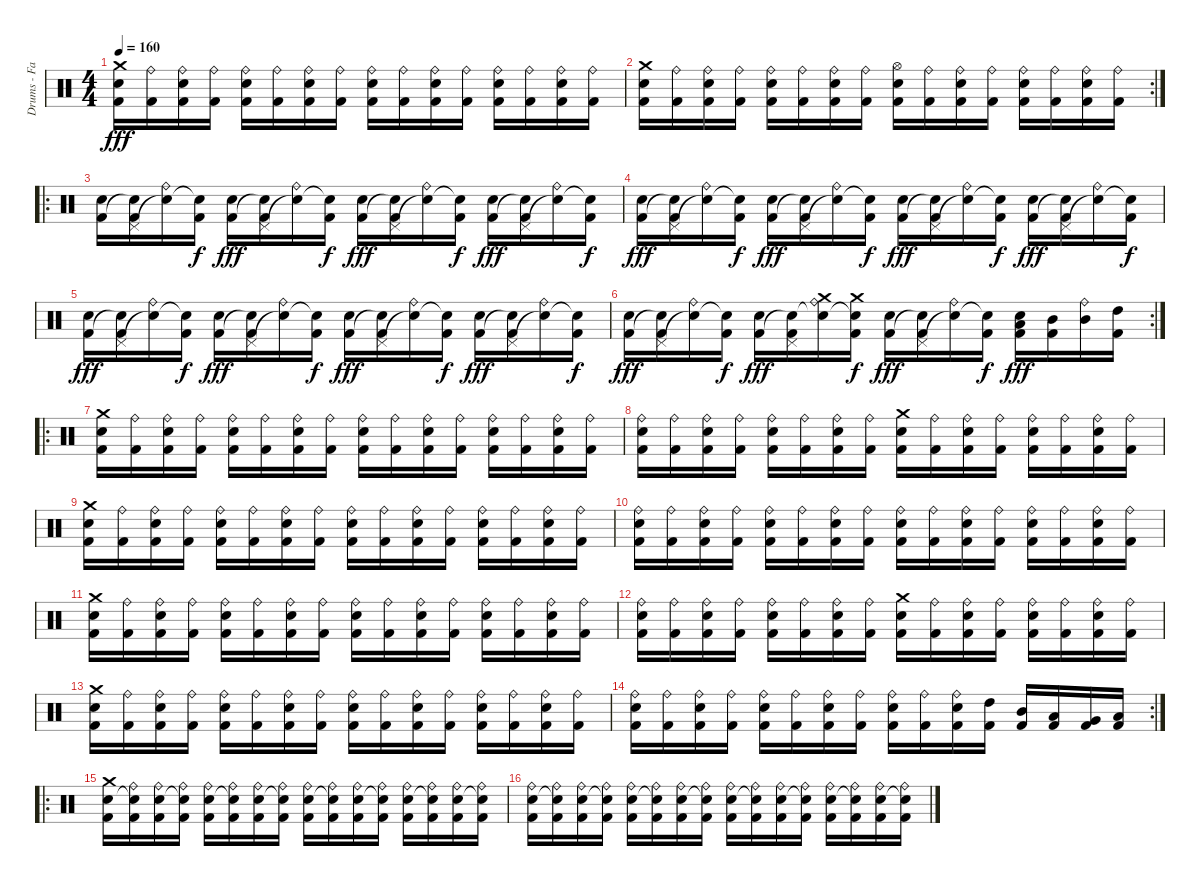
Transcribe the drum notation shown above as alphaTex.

\track ("Drums - Faust" "Drums - Fa") {instrument percussion}
\staff {score}
\articulation defaults
\ts (4 4)
\tempo 160
\clef neutral
\ks c
("Crash medium (hit)" "Electric Snare (hit)" "Kick (hit) 2").16{dy fff} ("Ride (bell)" "Kick (hit) 2").16 ("Ride (bell)" "Electric Snare (hit)" "Kick (hit) 2").16 ("Ride (bell)" "Kick (hit) 2").16 ("Ride (bell)" "Electric Snare (hit)" "Kick (hit) 2").16 ("Ride (bell)" "Kick (hit) 2").16 ("Ride (bell)" "Electric Snare (hit)" "Kick (hit) 2").16 ("Ride (bell)" "Kick (hit) 2").16 ("Ride (bell)" "Electric Snare (hit)" "Kick (hit) 2").16 ("Ride (bell)" "Kick (hit) 2").16 ("Ride (bell)" "Electric Snare (hit)" "Kick (hit) 2").16 ("Ride (bell)" "Kick (hit) 2").16 ("Ride (bell)" "Electric Snare (hit)" "Kick (hit) 2").16 ("Ride (bell)" "Kick (hit) 2").16 ("Ride (bell)" "Electric Snare (hit)" "Kick (hit) 2").16 ("Ride (bell)" "Kick (hit) 2").16 |
\rc 2
("Crash medium (hit)" "Electric Snare (hit)" "Kick (hit) 2").16 ("Ride (bell)" "Kick (hit) 2").16 ("Ride (bell)" "Electric Snare (hit)" "Kick (hit) 2").16 ("Ride (bell)" "Kick (hit) 2").16 ("Ride (bell)" "Electric Snare (hit)" "Kick (hit) 2").16 ("Ride (bell)" "Kick (hit) 2").16 ("Ride (bell)" "Electric Snare (hit)" "Kick (hit) 2").16 ("Ride (bell)" "Kick (hit) 2").16 ("Hi-Hat (open)" "Electric Snare (hit)" "Kick (hit) 2").16 ("Ride (bell)" "Kick (hit) 2").16 ("Ride (bell)" "Electric Snare (hit)" "Kick (hit) 2").16 ("Ride (bell)" "Kick (hit) 2").16 ("Ride (bell)" "Electric Snare (hit)" "Kick (hit) 2").16 ("Ride (bell)" "Kick (hit) 2").16 ("Ride (bell)" "Electric Snare (hit)" "Kick (hit) 2").16 ("Ride (bell)" "Kick (hit) 2").16 |
\ro
("Electric Snare (hit)" "Kick (hit) 2").16 ("Pedal Hi-Hat (hit)" "Snare (hit)"{t} "Kick (hit) 2").16 ("Snare (hit)"{t} "Ride (bell)").16 ("Snare (hit)"{t} "Kick (hit) 2").16{dy f} ("Electric Snare (hit)" "Kick (hit) 2").16{dy fff} ("Pedal Hi-Hat (hit)" "Snare (hit)"{t} "Kick (hit) 2").16 ("Snare (hit)"{t} "Ride (bell)").16 ("Snare (hit)"{t} "Kick (hit) 2").16{dy f} ("Electric Snare (hit)" "Kick (hit) 2").16{dy fff} ("Pedal Hi-Hat (hit)" "Snare (hit)"{t} "Kick (hit) 2").16 ("Snare (hit)"{t} "Ride (bell)").16 ("Snare (hit)"{t} "Kick (hit) 2").16{dy f} ("Electric Snare (hit)" "Kick (hit) 2").16{dy fff} ("Pedal Hi-Hat (hit)" "Snare (hit)"{t} "Kick (hit) 2").16 ("Snare (hit)"{t} "Ride (bell)").16 ("Snare (hit)"{t} "Kick (hit) 2").16{dy f} |
("Electric Snare (hit)" "Kick (hit) 2").16{dy fff} ("Pedal Hi-Hat (hit)" "Snare (hit)"{t} "Kick (hit) 2").16 ("Snare (hit)"{t} "Ride (bell)").16 ("Snare (hit)"{t} "Kick (hit) 2").16{dy f} ("Electric Snare (hit)" "Kick (hit) 2").16{dy fff} ("Pedal Hi-Hat (hit)" "Snare (hit)"{t} "Kick (hit) 2").16 ("Snare (hit)"{t} "Ride (bell)").16 ("Snare (hit)"{t} "Kick (hit) 2").16{dy f} ("Electric Snare (hit)" "Kick (hit) 2").16{dy fff} ("Pedal Hi-Hat (hit)" "Snare (hit)"{t} "Kick (hit) 2").16 ("Snare (hit)"{t} "Ride (bell)").16 ("Snare (hit)"{t} "Kick (hit) 2").16{dy f} ("Electric Snare (hit)" "Kick (hit) 2").16{dy fff} ("Pedal Hi-Hat (hit)" "Snare (hit)"{t} "Kick (hit) 2").16 ("Snare (hit)"{t} "Ride (bell)").16 ("Snare (hit)"{t} "Kick (hit) 2").16{dy f} |
("Electric Snare (hit)" "Kick (hit) 2").16{dy fff} ("Pedal Hi-Hat (hit)" "Snare (hit)"{t} "Kick (hit) 2").16 ("Snare (hit)"{t} "Ride (bell)").16 ("Snare (hit)"{t} "Kick (hit) 2").16{dy f} ("Electric Snare (hit)" "Kick (hit) 2").16{dy fff} ("Pedal Hi-Hat (hit)" "Snare (hit)"{t} "Kick (hit) 2").16 ("Snare (hit)"{t} "Ride (bell)").16 ("Snare (hit)"{t} "Kick (hit) 2").16{dy f} ("Electric Snare (hit)" "Kick (hit) 2").16{dy fff} ("Pedal Hi-Hat (hit)" "Snare (hit)"{t} "Kick (hit) 2").16 ("Snare (hit)"{t} "Ride (bell)").16 ("Snare (hit)"{t} "Kick (hit) 2").16{dy f} ("Electric Snare (hit)" "Kick (hit) 2").16{dy fff} ("Pedal Hi-Hat (hit)" "Snare (hit)"{t} "Kick (hit) 2").16 ("Snare (hit)"{t} "Ride (bell)").16 ("Snare (hit)"{t} "Kick (hit) 2").16{dy f} |
\rc 2
("Electric Snare (hit)" "Kick (hit) 2").16{dy fff} ("Pedal Hi-Hat (hit)" "Snare (hit)"{t} "Kick (hit) 2").16 ("Snare (hit)"{t} "Ride (bell)").16 ("Snare (hit)"{t} "Kick (hit) 2").16{dy f} ("Electric Snare (hit)" "Kick (hit) 2").16{dy fff} ("Pedal Hi-Hat (hit)" "Snare (hit)"{t} "Kick (hit) 2").16 ("Crash medium (hit)" "Snare (hit)"{t} "Ride (bell)").16 ("Crash medium (hit)" "Snare (hit)"{t} "Kick (hit) 2").16{dy f} ("Electric Snare (hit)" "Kick (hit) 2").16{dy fff} ("Pedal Hi-Hat (hit)" "Snare (hit)"{t} "Kick (hit) 2").16 ("Snare (hit)"{t} "Ride (bell)").16 ("Snare (hit)"{t} "Kick (hit) 2").16{dy f} ("Low Tom (hit)" "Electric Snare (hit)" "Kick (hit) 2").16{dy fff} ("Mid Tom (hit)" "Kick (hit) 2").16 ("Mid Tom (hit)" "Ride (bell)").16 ("High Tom (hit)" "Kick (hit) 2").16 |
\ro
("Crash medium (hit)" "Electric Snare (hit)" "Kick (hit) 2").16 ("Ride (bell)" "Kick (hit) 2").16 ("Ride (bell)" "Electric Snare (hit)" "Kick (hit) 2").16 ("Ride (bell)" "Kick (hit) 2").16 ("Ride (bell)" "Electric Snare (hit)" "Kick (hit) 2").16 ("Ride (bell)" "Kick (hit) 2").16 ("Ride (bell)" "Electric Snare (hit)" "Kick (hit) 2").16 ("Ride (bell)" "Kick (hit) 2").16 ("Ride (bell)" "Electric Snare (hit)" "Kick (hit) 2").16 ("Ride (bell)" "Kick (hit) 2").16 ("Ride (bell)" "Electric Snare (hit)" "Kick (hit) 2").16 ("Ride (bell)" "Kick (hit) 2").16 ("Ride (bell)" "Electric Snare (hit)" "Kick (hit) 2").16 ("Ride (bell)" "Kick (hit) 2").16 ("Ride (bell)" "Electric Snare (hit)" "Kick (hit) 2").16 ("Ride (bell)" "Kick (hit) 2").16 |
("Ride (bell)" "Electric Snare (hit)" "Kick (hit) 2").16 ("Ride (bell)" "Kick (hit) 2").16 ("Ride (bell)" "Electric Snare (hit)" "Kick (hit) 2").16 ("Ride (bell)" "Kick (hit) 2").16 ("Ride (bell)" "Electric Snare (hit)" "Kick (hit) 2").16 ("Ride (bell)" "Kick (hit) 2").16 ("Ride (bell)" "Electric Snare (hit)" "Kick (hit) 2").16 ("Ride (bell)" "Kick (hit) 2").16 ("Crash medium (hit)" "Electric Snare (hit)" "Kick (hit) 2").16 ("Ride (bell)" "Kick (hit) 2").16 ("Ride (bell)" "Electric Snare (hit)" "Kick (hit) 2").16 ("Ride (bell)" "Kick (hit) 2").16 ("Ride (bell)" "Electric Snare (hit)" "Kick (hit) 2").16 ("Ride (bell)" "Kick (hit) 2").16 ("Ride (bell)" "Electric Snare (hit)" "Kick (hit) 2").16 ("Ride (bell)" "Kick (hit) 2").16 |
("Crash medium (hit)" "Electric Snare (hit)" "Kick (hit) 2").16 ("Ride (bell)" "Kick (hit) 2").16 ("Ride (bell)" "Electric Snare (hit)" "Kick (hit) 2").16 ("Ride (bell)" "Kick (hit) 2").16 ("Ride (bell)" "Electric Snare (hit)" "Kick (hit) 2").16 ("Ride (bell)" "Kick (hit) 2").16 ("Ride (bell)" "Electric Snare (hit)" "Kick (hit) 2").16 ("Ride (bell)" "Kick (hit) 2").16 ("Ride (bell)" "Electric Snare (hit)" "Kick (hit) 2").16 ("Ride (bell)" "Kick (hit) 2").16 ("Ride (bell)" "Electric Snare (hit)" "Kick (hit) 2").16 ("Ride (bell)" "Kick (hit) 2").16 ("Ride (bell)" "Electric Snare (hit)" "Kick (hit) 2").16 ("Ride (bell)" "Kick (hit) 2").16 ("Ride (bell)" "Electric Snare (hit)" "Kick (hit) 2").16 ("Ride (bell)" "Kick (hit) 2").16 |
("Ride (bell)" "Electric Snare (hit)" "Kick (hit) 2").16 ("Ride (bell)" "Kick (hit) 2").16 ("Ride (bell)" "Electric Snare (hit)" "Kick (hit) 2").16 ("Ride (bell)" "Kick (hit) 2").16 ("Ride (bell)" "Electric Snare (hit)" "Kick (hit) 2").16 ("Ride (bell)" "Kick (hit) 2").16 ("Ride (bell)" "Electric Snare (hit)" "Kick (hit) 2").16 ("Ride (bell)" "Kick (hit) 2").16 ("Ride (bell)" "Electric Snare (hit)" "Kick (hit) 2").16 ("Ride (bell)" "Kick (hit) 2").16 ("Ride (bell)" "Electric Snare (hit)" "Kick (hit) 2").16 ("Ride (bell)" "Kick (hit) 2").16 ("Ride (bell)" "Electric Snare (hit)" "Kick (hit) 2").16 ("Ride (bell)" "Kick (hit) 2").16 ("Ride (bell)" "Electric Snare (hit)" "Kick (hit) 2").16 ("Ride (bell)" "Kick (hit) 2").16 |
("Crash medium (hit)" "Electric Snare (hit)" "Kick (hit) 2").16 ("Ride (bell)" "Kick (hit) 2").16 ("Ride (bell)" "Electric Snare (hit)" "Kick (hit) 2").16 ("Ride (bell)" "Kick (hit) 2").16 ("Ride (bell)" "Electric Snare (hit)" "Kick (hit) 2").16 ("Ride (bell)" "Kick (hit) 2").16 ("Ride (bell)" "Electric Snare (hit)" "Kick (hit) 2").16 ("Ride (bell)" "Kick (hit) 2").16 ("Ride (bell)" "Electric Snare (hit)" "Kick (hit) 2").16 ("Ride (bell)" "Kick (hit) 2").16 ("Ride (bell)" "Electric Snare (hit)" "Kick (hit) 2").16 ("Ride (bell)" "Kick (hit) 2").16 ("Ride (bell)" "Electric Snare (hit)" "Kick (hit) 2").16 ("Ride (bell)" "Kick (hit) 2").16 ("Ride (bell)" "Electric Snare (hit)" "Kick (hit) 2").16 ("Ride (bell)" "Kick (hit) 2").16 |
("Ride (bell)" "Electric Snare (hit)" "Kick (hit) 2").16 ("Ride (bell)" "Kick (hit) 2").16 ("Ride (bell)" "Electric Snare (hit)" "Kick (hit) 2").16 ("Ride (bell)" "Kick (hit) 2").16 ("Ride (bell)" "Electric Snare (hit)" "Kick (hit) 2").16 ("Ride (bell)" "Kick (hit) 2").16 ("Ride (bell)" "Electric Snare (hit)" "Kick (hit) 2").16 ("Ride (bell)" "Kick (hit) 2").16 ("Crash medium (hit)" "Electric Snare (hit)" "Kick (hit) 2").16 ("Ride (bell)" "Kick (hit) 2").16 ("Ride (bell)" "Electric Snare (hit)" "Kick (hit) 2").16 ("Ride (bell)" "Kick (hit) 2").16 ("Ride (bell)" "Electric Snare (hit)" "Kick (hit) 2").16 ("Ride (bell)" "Kick (hit) 2").16 ("Ride (bell)" "Electric Snare (hit)" "Kick (hit) 2").16 ("Ride (bell)" "Kick (hit) 2").16 |
("Crash medium (hit)" "Electric Snare (hit)" "Kick (hit) 2").16 ("Ride (bell)" "Kick (hit) 2").16 ("Ride (bell)" "Electric Snare (hit)" "Kick (hit) 2").16 ("Ride (bell)" "Kick (hit) 2").16 ("Ride (bell)" "Electric Snare (hit)" "Kick (hit) 2").16 ("Ride (bell)" "Kick (hit) 2").16 ("Ride (bell)" "Electric Snare (hit)" "Kick (hit) 2").16 ("Ride (bell)" "Kick (hit) 2").16 ("Ride (bell)" "Electric Snare (hit)" "Kick (hit) 2").16 ("Ride (bell)" "Kick (hit) 2").16 ("Ride (bell)" "Electric Snare (hit)" "Kick (hit) 2").16 ("Ride (bell)" "Kick (hit) 2").16 ("Ride (bell)" "Electric Snare (hit)" "Kick (hit) 2").16 ("Ride (bell)" "Kick (hit) 2").16 ("Ride (bell)" "Electric Snare (hit)" "Kick (hit) 2").16 ("Ride (bell)" "Kick (hit) 2").16 |
\rc 2
("Ride (bell)" "Electric Snare (hit)" "Kick (hit) 2").16 ("Ride (bell)" "Kick (hit) 2").16 ("Ride (bell)" "Electric Snare (hit)" "Kick (hit) 2").16 ("Ride (bell)" "Kick (hit) 2").16 ("Ride (bell)" "Electric Snare (hit)" "Kick (hit) 2").16 ("Ride (bell)" "Kick (hit) 2").16 ("Ride (bell)" "Electric Snare (hit)" "Kick (hit) 2").16 ("Ride (bell)" "Kick (hit) 2").16 ("Ride (bell)" "Electric Snare (hit)" "Kick (hit) 2").16 ("Ride (bell)" "Kick (hit) 2").16 ("Ride (bell)" "Electric Snare (hit)" "Kick (hit) 2").16 ("High Tom (hit)" "Kick (hit) 2").16 ("Mid Tom (hit)" "Kick (hit) 2").16 ("Low Tom (hit)" "Kick (hit) 2").16 ("Very Low Tom (hit)" "Kick (hit) 2").16 ("Low Floor Tom (hit)" "Kick (hit) 2").16 |
\ro
("Crash medium (hit)" "Electric Snare (hit)" "Kick (hit) 2").16 ("Ride (bell)" "Snare (hit)"{t} "Kick (hit) 2").16 ("Ride (bell)" "Electric Snare (hit)" "Kick (hit) 2").16 ("Ride (bell)" "Snare (hit)"{t} "Kick (hit) 2").16 ("Ride (bell)" "Electric Snare (hit)" "Kick (hit) 2").16 ("Ride (bell)" "Snare (hit)"{t} "Kick (hit) 2").16 ("Ride (bell)" "Electric Snare (hit)" "Kick (hit) 2").16 ("Ride (bell)" "Snare (hit)"{t} "Kick (hit) 2").16 ("Ride (bell)" "Electric Snare (hit)" "Kick (hit) 2").16 ("Ride (bell)" "Snare (hit)"{t} "Kick (hit) 2").16 ("Ride (bell)" "Electric Snare (hit)" "Kick (hit) 2").16 ("Ride (bell)" "Snare (hit)"{t} "Kick (hit) 2").16 ("Ride (bell)" "Electric Snare (hit)" "Kick (hit) 2").16 ("Ride (bell)" "Snare (hit)"{t} "Kick (hit) 2").16 ("Ride (bell)" "Electric Snare (hit)" "Kick (hit) 2").16 ("Ride (bell)" "Snare (hit)"{t} "Kick (hit) 2").16 |
("Ride (bell)" "Electric Snare (hit)" "Kick (hit) 2").16 ("Ride (bell)" "Snare (hit)"{t} "Kick (hit) 2").16 ("Ride (bell)" "Electric Snare (hit)" "Kick (hit) 2").16 ("Ride (bell)" "Snare (hit)"{t} "Kick (hit) 2").16 ("Ride (bell)" "Electric Snare (hit)" "Kick (hit) 2").16 ("Ride (bell)" "Snare (hit)"{t} "Kick (hit) 2").16 ("Ride (bell)" "Electric Snare (hit)" "Kick (hit) 2").16 ("Ride (bell)" "Snare (hit)"{t} "Kick (hit) 2").16 ("Ride (bell)" "Electric Snare (hit)" "Kick (hit) 2").16 ("Ride (bell)" "Snare (hit)"{t} "Kick (hit) 2").16 ("Ride (bell)" "Electric Snare (hit)" "Kick (hit) 2").16 ("Ride (bell)" "Snare (hit)"{t} "Kick (hit) 2").16 ("Ride (bell)" "Electric Snare (hit)" "Kick (hit) 2").16 ("Ride (bell)" "Snare (hit)"{t} "Kick (hit) 2").16 ("Ride (bell)" "Electric Snare (hit)" "Kick (hit) 2").16 ("Ride (bell)" "Snare (hit)"{t} "Kick (hit) 2").16
